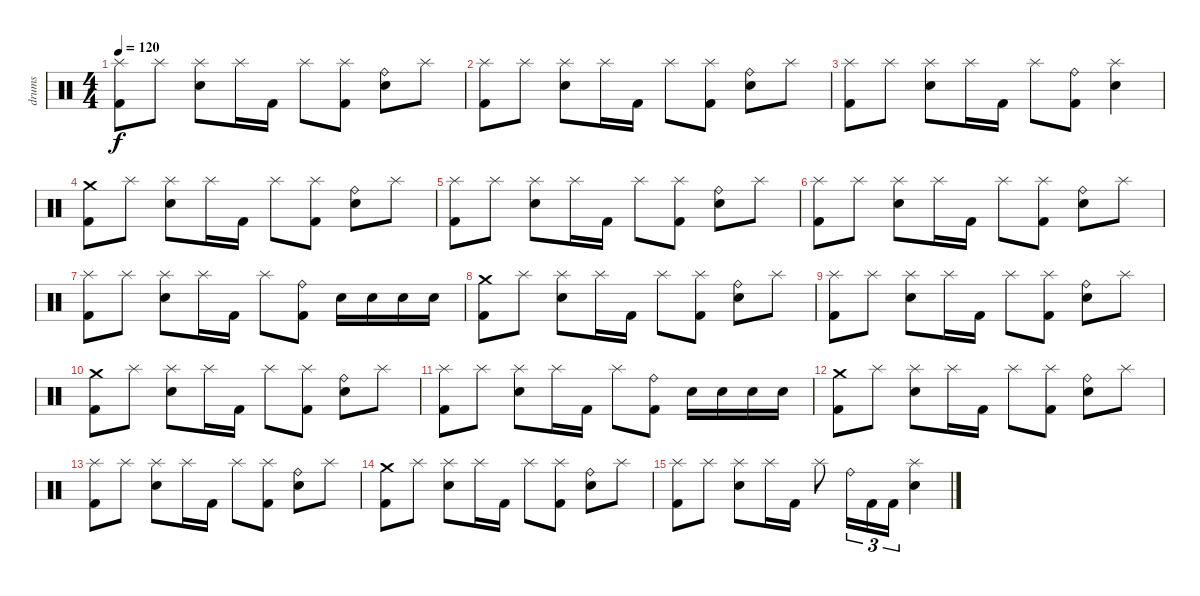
\track ("drums" "drums") {instrument percussion}
\staff {score}
\articulation defaults
\ts (4 4)
\tempo 120
\clef neutral
\ks c
("Splash (hit)" "Kick (hit) 2").8{dy f} "Splash (hit)".8 ("Splash (hit)" "Electric Snare (hit)").8 "Splash (hit)".16 "Kick (hit) 2".16 "Splash (hit)".8 ("Splash (hit)" "Kick (hit) 2").8 ("Ride (bell)" "Electric Snare (hit)").8 "Splash (hit)".8 |
("Splash (hit)" "Kick (hit) 2").8 "Splash (hit)".8 ("Splash (hit)" "Electric Snare (hit)").8 "Splash (hit)".16 "Kick (hit) 2".16 "Splash (hit)".8 ("Splash (hit)" "Kick (hit) 2").8 ("Ride (bell)" "Electric Snare (hit)").8 "Splash (hit)".8 |
("Splash (hit)" "Kick (hit) 2").8 "Splash (hit)".8 ("Splash (hit)" "Electric Snare (hit)").8 "Splash (hit)".16 "Kick (hit) 2".16 "Splash (hit)".8 ("Ride (bell)" "Kick (hit) 2").8 ("Splash (hit)" "Electric Snare (hit)").4 |
("Crash medium (hit)" "Kick (hit) 2").8 "Splash (hit)".8 ("Splash (hit)" "Electric Snare (hit)").8 "Splash (hit)".16 "Kick (hit) 2".16 "Splash (hit)".8 ("Splash (hit)" "Kick (hit) 2").8 ("Ride (bell)" "Electric Snare (hit)").8 "Splash (hit)".8 |
("Splash (hit)" "Kick (hit) 2").8 "Splash (hit)".8 ("Splash (hit)" "Electric Snare (hit)").8 "Splash (hit)".16 "Kick (hit) 2".16 "Splash (hit)".8 ("Splash (hit)" "Kick (hit) 2").8 ("Ride (bell)" "Electric Snare (hit)").8 "Splash (hit)".8 |
("Splash (hit)" "Kick (hit) 2").8 "Splash (hit)".8 ("Splash (hit)" "Electric Snare (hit)").8 "Splash (hit)".16 "Kick (hit) 2".16 "Splash (hit)".8 ("Splash (hit)" "Kick (hit) 2").8 ("Ride (bell)" "Electric Snare (hit)").8 "Splash (hit)".8 |
("Splash (hit)" "Kick (hit) 2").8 "Splash (hit)".8 ("Splash (hit)" "Electric Snare (hit)").8 "Splash (hit)".16 "Kick (hit) 2".16 "Splash (hit)".8 ("Ride (bell)" "Kick (hit) 2").8 "Electric Snare (hit)".16 "Electric Snare (hit)".16 "Electric Snare (hit)".16 "Electric Snare (hit)".16 |
("Crash medium (hit)" "Kick (hit) 2").8 "Splash (hit)".8 ("Splash (hit)" "Electric Snare (hit)").8 "Splash (hit)".16 "Kick (hit) 2".16 "Splash (hit)".8 ("Splash (hit)" "Kick (hit) 2").8 ("Ride (bell)" "Electric Snare (hit)").8 "Splash (hit)".8 |
("Splash (hit)" "Kick (hit) 2").8 "Splash (hit)".8 ("Splash (hit)" "Electric Snare (hit)").8 "Splash (hit)".16 "Kick (hit) 2".16 "Splash (hit)".8 ("Splash (hit)" "Kick (hit) 2").8 ("Ride (bell)" "Electric Snare (hit)").8 "Splash (hit)".8 |
("Crash medium (hit)" "Kick (hit) 2").8 "Splash (hit)".8 ("Splash (hit)" "Electric Snare (hit)").8 "Splash (hit)".16 "Kick (hit) 2".16 "Splash (hit)".8 ("Splash (hit)" "Kick (hit) 2").8 ("Ride (bell)" "Electric Snare (hit)").8 "Splash (hit)".8 |
("Splash (hit)" "Kick (hit) 2").8 "Splash (hit)".8 ("Splash (hit)" "Electric Snare (hit)").8 "Splash (hit)".16 "Kick (hit) 2".16 "Splash (hit)".8 ("Ride (bell)" "Kick (hit) 2").8 "Electric Snare (hit)".16 "Electric Snare (hit)".16 "Electric Snare (hit)".16 "Electric Snare (hit)".16 |
("Crash medium (hit)" "Kick (hit) 2").8 "Splash (hit)".8 ("Splash (hit)" "Electric Snare (hit)").8 "Splash (hit)".16 "Kick (hit) 2".16 "Splash (hit)".8 ("Splash (hit)" "Kick (hit) 2").8 ("Ride (bell)" "Electric Snare (hit)").8 "Splash (hit)".8 |
("Splash (hit)" "Kick (hit) 2").8 "Splash (hit)".8 ("Splash (hit)" "Electric Snare (hit)").8 "Splash (hit)".16 "Kick (hit) 2".16 "Splash (hit)".8 ("Splash (hit)" "Kick (hit) 2").8 ("Ride (bell)" "Electric Snare (hit)").8 "Splash (hit)".8 |
("Crash medium (hit)" "Kick (hit) 2").8 "Splash (hit)".8 ("Splash (hit)" "Electric Snare (hit)").8 "Splash (hit)".16 "Kick (hit) 2".16 "Splash (hit)".8 ("Splash (hit)" "Kick (hit) 2").8 ("Ride (bell)" "Electric Snare (hit)").8 "Splash (hit)".8 |
("Splash (hit)" "Kick (hit) 2").8 "Splash (hit)".8 ("Splash (hit)" "Electric Snare (hit)").8 "Splash (hit)".16 "Kick (hit) 2".16 "Splash (hit)".8 "Ride (bell)".16{tu (3 2)} "Kick (hit) 2".16{tu (3 2)} "Kick (hit) 2".16{tu (3 2)} ("Splash (hit)" "Electric Snare (hit)").4
